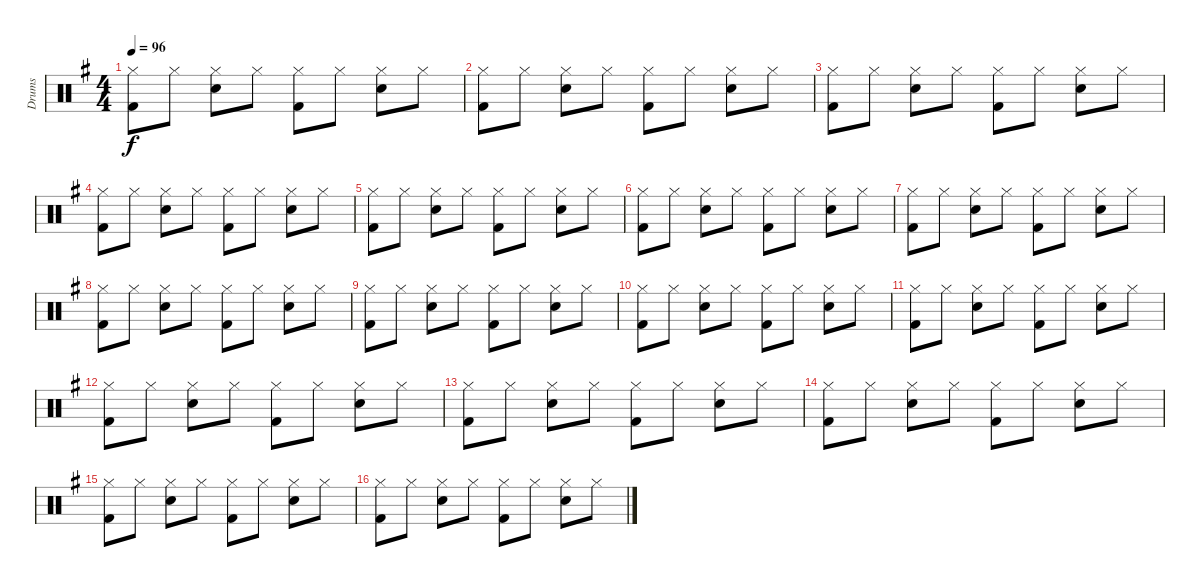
\track ("Drums" "Drums") {instrument percussion}
\staff {score}
\articulation defaults
\ts (4 4)
\tempo 96
\clef neutral
\ks eminor
("Hi-Hat (closed)" "Kick (hit) 2").8{dy f} "Hi-Hat (closed)".8 ("Hi-Hat (closed)" "Snare (hit) 2").8 "Hi-Hat (closed)".8 ("Hi-Hat (closed)" "Kick (hit) 2").8 "Hi-Hat (closed)".8 ("Hi-Hat (closed)" "Snare (hit) 2").8 "Hi-Hat (closed)".8 |
("Hi-Hat (closed)" "Kick (hit) 2").8 "Hi-Hat (closed)".8 ("Hi-Hat (closed)" "Snare (hit) 2").8 "Hi-Hat (closed)".8 ("Hi-Hat (closed)" "Kick (hit) 2").8 "Hi-Hat (closed)".8 ("Hi-Hat (closed)" "Snare (hit) 2").8 "Hi-Hat (closed)".8 |
("Hi-Hat (closed)" "Kick (hit) 2").8 "Hi-Hat (closed)".8 ("Hi-Hat (closed)" "Snare (hit) 2").8 "Hi-Hat (closed)".8 ("Hi-Hat (closed)" "Kick (hit) 2").8 "Hi-Hat (closed)".8 ("Hi-Hat (closed)" "Snare (hit) 2").8 "Hi-Hat (closed)".8 |
("Hi-Hat (closed)" "Kick (hit) 2").8 "Hi-Hat (closed)".8 ("Hi-Hat (closed)" "Snare (hit) 2").8 "Hi-Hat (closed)".8 ("Hi-Hat (closed)" "Kick (hit) 2").8 "Hi-Hat (closed)".8 ("Hi-Hat (closed)" "Snare (hit) 2").8 "Hi-Hat (closed)".8 |
("Hi-Hat (closed)" "Kick (hit) 2").8 "Hi-Hat (closed)".8 ("Hi-Hat (closed)" "Snare (hit) 2").8 "Hi-Hat (closed)".8 ("Hi-Hat (closed)" "Kick (hit) 2").8 "Hi-Hat (closed)".8 ("Hi-Hat (closed)" "Snare (hit) 2").8 "Hi-Hat (closed)".8 |
("Hi-Hat (closed)" "Kick (hit) 2").8 "Hi-Hat (closed)".8 ("Hi-Hat (closed)" "Snare (hit) 2").8 "Hi-Hat (closed)".8 ("Hi-Hat (closed)" "Kick (hit) 2").8 "Hi-Hat (closed)".8 ("Hi-Hat (closed)" "Snare (hit) 2").8 "Hi-Hat (closed)".8 |
("Hi-Hat (closed)" "Kick (hit) 2").8 "Hi-Hat (closed)".8 ("Hi-Hat (closed)" "Snare (hit) 2").8 "Hi-Hat (closed)".8 ("Hi-Hat (closed)" "Kick (hit) 2").8 "Hi-Hat (closed)".8 ("Hi-Hat (closed)" "Snare (hit) 2").8 "Hi-Hat (closed)".8 |
("Hi-Hat (closed)" "Kick (hit) 2").8 "Hi-Hat (closed)".8 ("Hi-Hat (closed)" "Snare (hit) 2").8 "Hi-Hat (closed)".8 ("Hi-Hat (closed)" "Kick (hit) 2").8 "Hi-Hat (closed)".8 ("Hi-Hat (closed)" "Snare (hit) 2").8 "Hi-Hat (closed)".8 |
("Hi-Hat (closed)" "Kick (hit) 2").8 "Hi-Hat (closed)".8 ("Hi-Hat (closed)" "Snare (hit) 2").8 "Hi-Hat (closed)".8 ("Hi-Hat (closed)" "Kick (hit) 2").8 "Hi-Hat (closed)".8 ("Hi-Hat (closed)" "Snare (hit) 2").8 "Hi-Hat (closed)".8 |
("Hi-Hat (closed)" "Kick (hit) 2").8 "Hi-Hat (closed)".8 ("Hi-Hat (closed)" "Snare (hit) 2").8 "Hi-Hat (closed)".8 ("Hi-Hat (closed)" "Kick (hit) 2").8 "Hi-Hat (closed)".8 ("Hi-Hat (closed)" "Snare (hit) 2").8 "Hi-Hat (closed)".8 |
("Hi-Hat (closed)" "Kick (hit) 2").8 "Hi-Hat (closed)".8 ("Hi-Hat (closed)" "Snare (hit) 2").8 "Hi-Hat (closed)".8 ("Hi-Hat (closed)" "Kick (hit) 2").8 "Hi-Hat (closed)".8 ("Hi-Hat (closed)" "Snare (hit) 2").8 "Hi-Hat (closed)".8 |
("Hi-Hat (closed)" "Kick (hit) 2").8 "Hi-Hat (closed)".8 ("Hi-Hat (closed)" "Snare (hit) 2").8 "Hi-Hat (closed)".8 ("Hi-Hat (closed)" "Kick (hit) 2").8 "Hi-Hat (closed)".8 ("Hi-Hat (closed)" "Snare (hit) 2").8 "Hi-Hat (closed)".8 |
("Hi-Hat (closed)" "Kick (hit) 2").8 "Hi-Hat (closed)".8 ("Hi-Hat (closed)" "Snare (hit) 2").8 "Hi-Hat (closed)".8 ("Hi-Hat (closed)" "Kick (hit) 2").8 "Hi-Hat (closed)".8 ("Hi-Hat (closed)" "Snare (hit) 2").8 "Hi-Hat (closed)".8 |
("Hi-Hat (closed)" "Kick (hit) 2").8 "Hi-Hat (closed)".8 ("Hi-Hat (closed)" "Snare (hit) 2").8 "Hi-Hat (closed)".8 ("Hi-Hat (closed)" "Kick (hit) 2").8 "Hi-Hat (closed)".8 ("Hi-Hat (closed)" "Snare (hit) 2").8 "Hi-Hat (closed)".8 |
("Hi-Hat (closed)" "Kick (hit) 2").8 "Hi-Hat (closed)".8 ("Hi-Hat (closed)" "Snare (hit) 2").8 "Hi-Hat (closed)".8 ("Hi-Hat (closed)" "Kick (hit) 2").8 "Hi-Hat (closed)".8 ("Hi-Hat (closed)" "Snare (hit) 2").8 "Hi-Hat (closed)".8 |
("Hi-Hat (closed)" "Kick (hit) 2").8 "Hi-Hat (closed)".8 ("Hi-Hat (closed)" "Snare (hit) 2").8 "Hi-Hat (closed)".8 ("Hi-Hat (closed)" "Kick (hit) 2").8 "Hi-Hat (closed)".8 ("Hi-Hat (closed)" "Snare (hit) 2").8 "Hi-Hat (closed)".8
